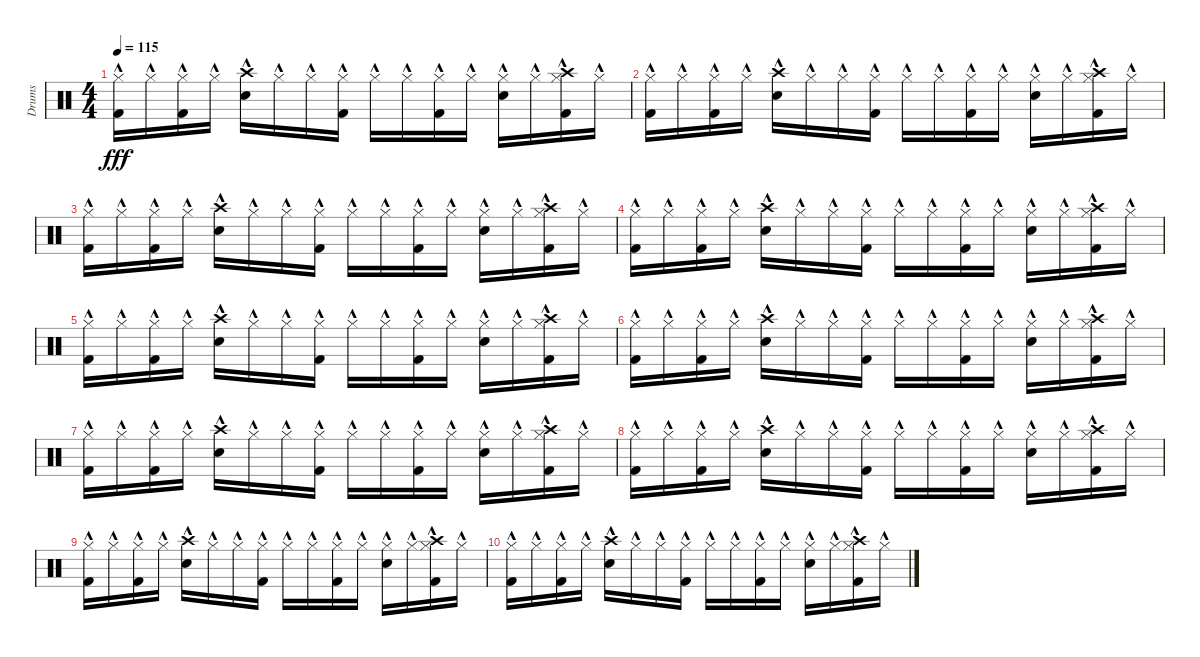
\track ("Drums" "Drums") {instrument percussion}
\staff {score}
\articulation defaults
\ts (4 4)
\tempo 115
\clef neutral
\ks c
("Kick (hit) 2"{hac} "Hi-Hat (closed)").16{dy fff} "Hi-Hat (closed)"{hac}.16 ("Kick (hit) 2"{hac} "Hi-Hat (closed)").16 "Hi-Hat (closed)"{hac}.16 ("Electric Snare (hit)"{hac} "Crash high (hit)").16 "Hi-Hat (closed)"{hac}.16 "Hi-Hat (closed)"{hac}.16 ("Kick (hit) 2" "Hi-Hat (closed)"{hac}).16 "Hi-Hat (closed)"{hac}.16 "Hi-Hat (closed)"{hac}.16 ("Kick (hit) 2" "Hi-Hat (closed)"{hac}).16 "Hi-Hat (closed)"{hac}.16 ("Electric Snare (hit)" "Hi-Hat (closed)"{hac}).16 "Hi-Hat (closed)"{hac}.16 ("Crash high (hit)" "Kick (hit) 2" "Hi-Hat (closed)"{hac}).16 "Hi-Hat (closed)"{hac}.16 |
("Kick (hit) 2"{hac} "Hi-Hat (closed)").16 "Hi-Hat (closed)"{hac}.16 ("Kick (hit) 2"{hac} "Hi-Hat (closed)").16 "Hi-Hat (closed)"{hac}.16 ("Electric Snare (hit)"{hac} "Crash high (hit)").16 "Hi-Hat (closed)"{hac}.16 "Hi-Hat (closed)"{hac}.16 ("Kick (hit) 2" "Hi-Hat (closed)"{hac}).16 "Hi-Hat (closed)"{hac}.16 "Hi-Hat (closed)"{hac}.16 ("Kick (hit) 2" "Hi-Hat (closed)"{hac}).16 "Hi-Hat (closed)"{hac}.16 ("Electric Snare (hit)" "Hi-Hat (closed)"{hac}).16 "Hi-Hat (closed)"{hac}.16 ("Crash high (hit)" "Kick (hit) 2" "Hi-Hat (closed)"{hac}).16 "Hi-Hat (closed)"{hac}.16 |
("Kick (hit) 2"{hac} "Hi-Hat (closed)").16 "Hi-Hat (closed)"{hac}.16 ("Kick (hit) 2"{hac} "Hi-Hat (closed)").16 "Hi-Hat (closed)"{hac}.16 ("Electric Snare (hit)"{hac} "Crash high (hit)").16 "Hi-Hat (closed)"{hac}.16 "Hi-Hat (closed)"{hac}.16 ("Kick (hit) 2" "Hi-Hat (closed)"{hac}).16 "Hi-Hat (closed)"{hac}.16 "Hi-Hat (closed)"{hac}.16 ("Kick (hit) 2" "Hi-Hat (closed)"{hac}).16 "Hi-Hat (closed)"{hac}.16 ("Electric Snare (hit)" "Hi-Hat (closed)"{hac}).16 "Hi-Hat (closed)"{hac}.16 ("Crash high (hit)" "Kick (hit) 2" "Hi-Hat (closed)"{hac}).16 "Hi-Hat (closed)"{hac}.16 |
("Kick (hit) 2"{hac} "Hi-Hat (closed)").16 "Hi-Hat (closed)"{hac}.16 ("Kick (hit) 2"{hac} "Hi-Hat (closed)").16 "Hi-Hat (closed)"{hac}.16 ("Electric Snare (hit)"{hac} "Crash high (hit)").16 "Hi-Hat (closed)"{hac}.16 "Hi-Hat (closed)"{hac}.16 ("Kick (hit) 2" "Hi-Hat (closed)"{hac}).16 "Hi-Hat (closed)"{hac}.16 "Hi-Hat (closed)"{hac}.16 ("Kick (hit) 2" "Hi-Hat (closed)"{hac}).16 "Hi-Hat (closed)"{hac}.16 ("Electric Snare (hit)" "Hi-Hat (closed)"{hac}).16 "Hi-Hat (closed)"{hac}.16 ("Crash high (hit)" "Kick (hit) 2" "Hi-Hat (closed)"{hac}).16 "Hi-Hat (closed)"{hac}.16 |
("Kick (hit) 2"{hac} "Hi-Hat (closed)").16 "Hi-Hat (closed)"{hac}.16 ("Kick (hit) 2"{hac} "Hi-Hat (closed)").16 "Hi-Hat (closed)"{hac}.16 ("Electric Snare (hit)"{hac} "Crash high (hit)").16 "Hi-Hat (closed)"{hac}.16 "Hi-Hat (closed)"{hac}.16 ("Kick (hit) 2" "Hi-Hat (closed)"{hac}).16 "Hi-Hat (closed)"{hac}.16 "Hi-Hat (closed)"{hac}.16 ("Kick (hit) 2" "Hi-Hat (closed)"{hac}).16 "Hi-Hat (closed)"{hac}.16 ("Electric Snare (hit)" "Hi-Hat (closed)"{hac}).16 "Hi-Hat (closed)"{hac}.16 ("Crash high (hit)" "Kick (hit) 2" "Hi-Hat (closed)"{hac}).16 "Hi-Hat (closed)"{hac}.16 |
("Kick (hit) 2"{hac} "Hi-Hat (closed)").16 "Hi-Hat (closed)"{hac}.16 ("Kick (hit) 2"{hac} "Hi-Hat (closed)").16 "Hi-Hat (closed)"{hac}.16 ("Electric Snare (hit)"{hac} "Crash high (hit)").16 "Hi-Hat (closed)"{hac}.16 "Hi-Hat (closed)"{hac}.16 ("Kick (hit) 2" "Hi-Hat (closed)"{hac}).16 "Hi-Hat (closed)"{hac}.16 "Hi-Hat (closed)"{hac}.16 ("Kick (hit) 2" "Hi-Hat (closed)"{hac}).16 "Hi-Hat (closed)"{hac}.16 ("Electric Snare (hit)" "Hi-Hat (closed)"{hac}).16 "Hi-Hat (closed)"{hac}.16 ("Crash high (hit)" "Kick (hit) 2" "Hi-Hat (closed)"{hac}).16 "Hi-Hat (closed)"{hac}.16 |
("Kick (hit) 2"{hac} "Hi-Hat (closed)").16 "Hi-Hat (closed)"{hac}.16 ("Kick (hit) 2"{hac} "Hi-Hat (closed)").16 "Hi-Hat (closed)"{hac}.16 ("Electric Snare (hit)"{hac} "Crash high (hit)").16 "Hi-Hat (closed)"{hac}.16 "Hi-Hat (closed)"{hac}.16 ("Kick (hit) 2" "Hi-Hat (closed)"{hac}).16 "Hi-Hat (closed)"{hac}.16 "Hi-Hat (closed)"{hac}.16 ("Kick (hit) 2" "Hi-Hat (closed)"{hac}).16 "Hi-Hat (closed)"{hac}.16 ("Electric Snare (hit)" "Hi-Hat (closed)"{hac}).16 "Hi-Hat (closed)"{hac}.16 ("Crash high (hit)" "Kick (hit) 2" "Hi-Hat (closed)"{hac}).16 "Hi-Hat (closed)"{hac}.16 |
("Kick (hit) 2"{hac} "Hi-Hat (closed)").16 "Hi-Hat (closed)"{hac}.16 ("Kick (hit) 2"{hac} "Hi-Hat (closed)").16 "Hi-Hat (closed)"{hac}.16 ("Electric Snare (hit)"{hac} "Crash high (hit)").16 "Hi-Hat (closed)"{hac}.16 "Hi-Hat (closed)"{hac}.16 ("Kick (hit) 2" "Hi-Hat (closed)"{hac}).16 "Hi-Hat (closed)"{hac}.16 "Hi-Hat (closed)"{hac}.16 ("Kick (hit) 2" "Hi-Hat (closed)"{hac}).16 "Hi-Hat (closed)"{hac}.16 ("Electric Snare (hit)" "Hi-Hat (closed)"{hac}).16 "Hi-Hat (closed)"{hac}.16 ("Crash high (hit)" "Kick (hit) 2" "Hi-Hat (closed)"{hac}).16 "Hi-Hat (closed)"{hac}.16 |
("Kick (hit) 2"{hac} "Hi-Hat (closed)").16 "Hi-Hat (closed)"{hac}.16 ("Kick (hit) 2"{hac} "Hi-Hat (closed)").16 "Hi-Hat (closed)"{hac}.16 ("Electric Snare (hit)"{hac} "Crash high (hit)").16 "Hi-Hat (closed)"{hac}.16 "Hi-Hat (closed)"{hac}.16 ("Kick (hit) 2" "Hi-Hat (closed)"{hac}).16 "Hi-Hat (closed)"{hac}.16 "Hi-Hat (closed)"{hac}.16 ("Kick (hit) 2" "Hi-Hat (closed)"{hac}).16 "Hi-Hat (closed)"{hac}.16 ("Electric Snare (hit)" "Hi-Hat (closed)"{hac}).16 "Hi-Hat (closed)"{hac}.16 ("Crash high (hit)" "Kick (hit) 2" "Hi-Hat (closed)"{hac}).16 "Hi-Hat (closed)"{hac}.16 |
("Kick (hit) 2"{hac} "Hi-Hat (closed)").16 "Hi-Hat (closed)"{hac}.16 ("Kick (hit) 2"{hac} "Hi-Hat (closed)").16 "Hi-Hat (closed)"{hac}.16 ("Electric Snare (hit)"{hac} "Crash high (hit)").16 "Hi-Hat (closed)"{hac}.16 "Hi-Hat (closed)"{hac}.16 ("Kick (hit) 2" "Hi-Hat (closed)"{hac}).16 "Hi-Hat (closed)"{hac}.16 "Hi-Hat (closed)"{hac}.16 ("Kick (hit) 2" "Hi-Hat (closed)"{hac}).16 "Hi-Hat (closed)"{hac}.16 ("Electric Snare (hit)" "Hi-Hat (closed)"{hac}).16 "Hi-Hat (closed)"{hac}.16 ("Crash high (hit)" "Kick (hit) 2" "Hi-Hat (closed)"{hac}).16 "Hi-Hat (closed)"{hac}.16
